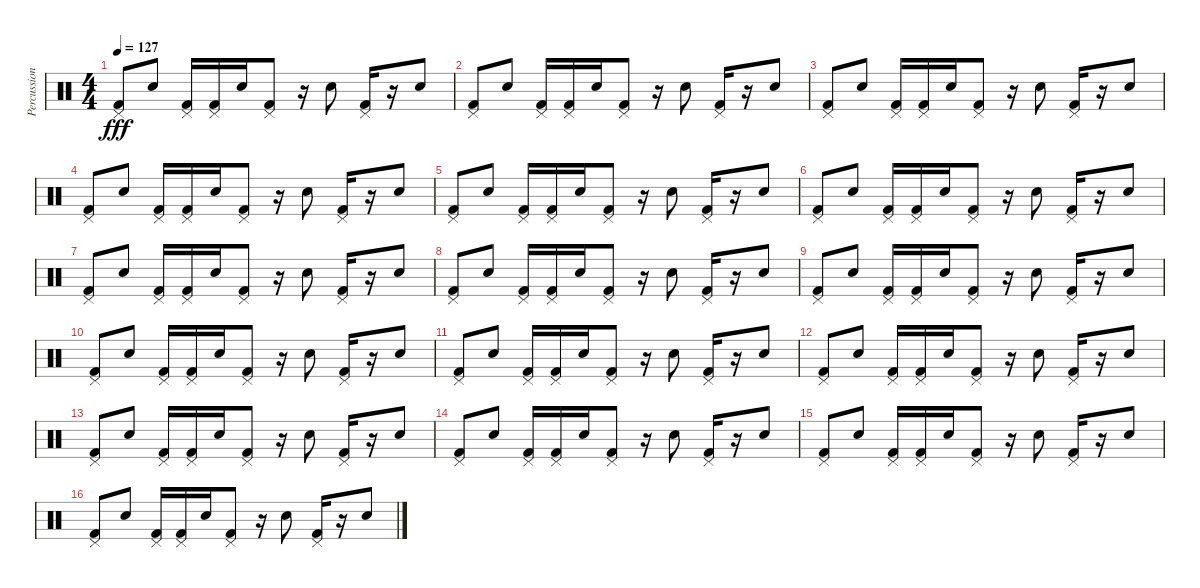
\track ("Percussion" "Percussion") {instrument percussion}
\staff {score}
\articulation defaults
\ts (4 4)
\tempo 127
\clef neutral
\ks c
("Pedal Hi-Hat (hit)" "Kick (hit) 2").8{dy fff} "Snare (hit) 2".8 ("Pedal Hi-Hat (hit)" "Kick (hit) 2").16 ("Pedal Hi-Hat (hit)" "Kick (hit) 2").16 "Snare (hit) 2".16 ("Pedal Hi-Hat (hit)" "Kick (hit) 2").8 r.16 "Snare (hit) 2".8 ("Pedal Hi-Hat (hit)" "Kick (hit) 2").16 r.16 "Snare (hit) 2".8 |
("Pedal Hi-Hat (hit)" "Kick (hit) 2").8 "Snare (hit) 2".8 ("Pedal Hi-Hat (hit)" "Kick (hit) 2").16 ("Pedal Hi-Hat (hit)" "Kick (hit) 2").16 "Snare (hit) 2".16 ("Pedal Hi-Hat (hit)" "Kick (hit) 2").8 r.16 "Snare (hit) 2".8 ("Pedal Hi-Hat (hit)" "Kick (hit) 2").16 r.16 "Snare (hit) 2".8 |
("Pedal Hi-Hat (hit)" "Kick (hit) 2").8 "Snare (hit) 2".8 ("Pedal Hi-Hat (hit)" "Kick (hit) 2").16 ("Pedal Hi-Hat (hit)" "Kick (hit) 2").16 "Snare (hit) 2".16 ("Pedal Hi-Hat (hit)" "Kick (hit) 2").8 r.16 "Snare (hit) 2".8 ("Pedal Hi-Hat (hit)" "Kick (hit) 2").16 r.16 "Snare (hit) 2".8 |
("Pedal Hi-Hat (hit)" "Kick (hit) 2").8 "Snare (hit) 2".8 ("Pedal Hi-Hat (hit)" "Kick (hit) 2").16 ("Pedal Hi-Hat (hit)" "Kick (hit) 2").16 "Snare (hit) 2".16 ("Pedal Hi-Hat (hit)" "Kick (hit) 2").8 r.16 "Snare (hit) 2".8 ("Pedal Hi-Hat (hit)" "Kick (hit) 2").16 r.16 "Snare (hit) 2".8 |
("Pedal Hi-Hat (hit)" "Kick (hit) 2").8 "Snare (hit) 2".8 ("Pedal Hi-Hat (hit)" "Kick (hit) 2").16 ("Pedal Hi-Hat (hit)" "Kick (hit) 2").16 "Snare (hit) 2".16 ("Pedal Hi-Hat (hit)" "Kick (hit) 2").8 r.16 "Snare (hit) 2".8 ("Pedal Hi-Hat (hit)" "Kick (hit) 2").16 r.16 "Snare (hit) 2".8 |
("Pedal Hi-Hat (hit)" "Kick (hit) 2").8 "Snare (hit) 2".8 ("Pedal Hi-Hat (hit)" "Kick (hit) 2").16 ("Pedal Hi-Hat (hit)" "Kick (hit) 2").16 "Snare (hit) 2".16 ("Pedal Hi-Hat (hit)" "Kick (hit) 2").8 r.16 "Snare (hit) 2".8 ("Pedal Hi-Hat (hit)" "Kick (hit) 2").16 r.16 "Snare (hit) 2".8 |
("Pedal Hi-Hat (hit)" "Kick (hit) 2").8 "Snare (hit) 2".8 ("Pedal Hi-Hat (hit)" "Kick (hit) 2").16 ("Pedal Hi-Hat (hit)" "Kick (hit) 2").16 "Snare (hit) 2".16 ("Pedal Hi-Hat (hit)" "Kick (hit) 2").8 r.16 "Snare (hit) 2".8 ("Pedal Hi-Hat (hit)" "Kick (hit) 2").16 r.16 "Snare (hit) 2".8 |
("Pedal Hi-Hat (hit)" "Kick (hit) 2").8 "Snare (hit) 2".8 ("Pedal Hi-Hat (hit)" "Kick (hit) 2").16 ("Pedal Hi-Hat (hit)" "Kick (hit) 2").16 "Snare (hit) 2".16 ("Pedal Hi-Hat (hit)" "Kick (hit) 2").8 r.16 "Snare (hit) 2".8 ("Pedal Hi-Hat (hit)" "Kick (hit) 2").16 r.16 "Snare (hit) 2".8 |
("Pedal Hi-Hat (hit)" "Kick (hit) 2").8 "Snare (hit) 2".8 ("Pedal Hi-Hat (hit)" "Kick (hit) 2").16 ("Pedal Hi-Hat (hit)" "Kick (hit) 2").16 "Snare (hit) 2".16 ("Pedal Hi-Hat (hit)" "Kick (hit) 2").8 r.16 "Snare (hit) 2".8 ("Pedal Hi-Hat (hit)" "Kick (hit) 2").16 r.16 "Snare (hit) 2".8 |
("Pedal Hi-Hat (hit)" "Kick (hit) 2").8 "Snare (hit) 2".8 ("Pedal Hi-Hat (hit)" "Kick (hit) 2").16 ("Pedal Hi-Hat (hit)" "Kick (hit) 2").16 "Snare (hit) 2".16 ("Pedal Hi-Hat (hit)" "Kick (hit) 2").8 r.16 "Snare (hit) 2".8 ("Pedal Hi-Hat (hit)" "Kick (hit) 2").16 r.16 "Snare (hit) 2".8 |
("Pedal Hi-Hat (hit)" "Kick (hit) 2").8 "Snare (hit) 2".8 ("Pedal Hi-Hat (hit)" "Kick (hit) 2").16 ("Pedal Hi-Hat (hit)" "Kick (hit) 2").16 "Snare (hit) 2".16 ("Pedal Hi-Hat (hit)" "Kick (hit) 2").8 r.16 "Snare (hit) 2".8 ("Pedal Hi-Hat (hit)" "Kick (hit) 2").16 r.16 "Snare (hit) 2".8 |
("Pedal Hi-Hat (hit)" "Kick (hit) 2").8 "Snare (hit) 2".8 ("Pedal Hi-Hat (hit)" "Kick (hit) 2").16 ("Pedal Hi-Hat (hit)" "Kick (hit) 2").16 "Snare (hit) 2".16 ("Pedal Hi-Hat (hit)" "Kick (hit) 2").8 r.16 "Snare (hit) 2".8 ("Pedal Hi-Hat (hit)" "Kick (hit) 2").16 r.16 "Snare (hit) 2".8 |
("Pedal Hi-Hat (hit)" "Kick (hit) 2").8 "Snare (hit) 2".8 ("Pedal Hi-Hat (hit)" "Kick (hit) 2").16 ("Pedal Hi-Hat (hit)" "Kick (hit) 2").16 "Snare (hit) 2".16 ("Pedal Hi-Hat (hit)" "Kick (hit) 2").8 r.16 "Snare (hit) 2".8 ("Pedal Hi-Hat (hit)" "Kick (hit) 2").16 r.16 "Snare (hit) 2".8 |
("Pedal Hi-Hat (hit)" "Kick (hit) 2").8 "Snare (hit) 2".8 ("Pedal Hi-Hat (hit)" "Kick (hit) 2").16 ("Pedal Hi-Hat (hit)" "Kick (hit) 2").16 "Snare (hit) 2".16 ("Pedal Hi-Hat (hit)" "Kick (hit) 2").8 r.16 "Snare (hit) 2".8 ("Pedal Hi-Hat (hit)" "Kick (hit) 2").16 r.16 "Snare (hit) 2".8 |
("Pedal Hi-Hat (hit)" "Kick (hit) 2").8 "Snare (hit) 2".8 ("Pedal Hi-Hat (hit)" "Kick (hit) 2").16 ("Pedal Hi-Hat (hit)" "Kick (hit) 2").16 "Snare (hit) 2".16 ("Pedal Hi-Hat (hit)" "Kick (hit) 2").8 r.16 "Snare (hit) 2".8 ("Pedal Hi-Hat (hit)" "Kick (hit) 2").16 r.16 "Snare (hit) 2".8 |
("Pedal Hi-Hat (hit)" "Kick (hit) 2").8 "Snare (hit) 2".8 ("Pedal Hi-Hat (hit)" "Kick (hit) 2").16 ("Pedal Hi-Hat (hit)" "Kick (hit) 2").16 "Snare (hit) 2".16 ("Pedal Hi-Hat (hit)" "Kick (hit) 2").8 r.16 "Snare (hit) 2".8 ("Pedal Hi-Hat (hit)" "Kick (hit) 2").16 r.16 "Snare (hit) 2".8
